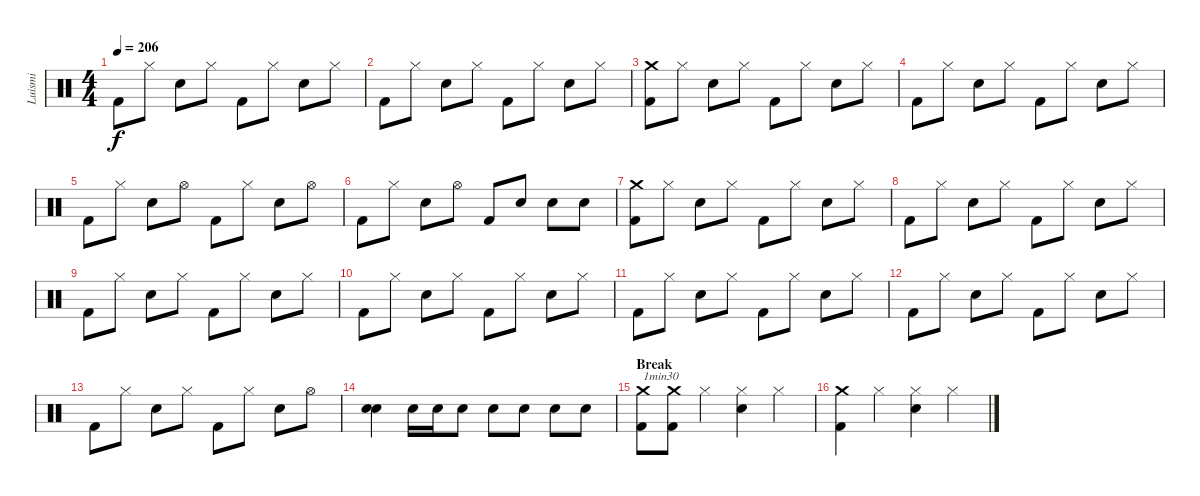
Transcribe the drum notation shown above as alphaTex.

\track ("Luismi" "Luismi") {instrument percussion}
\staff {score}
\articulation defaults
\ts (4 4)
\tempo 206
\clef neutral
\ks c "Kick (hit) 2".8{dy f} "Hi-Hat (closed)".8 "Snare (hit) 2".8 "Hi-Hat (closed)".8 "Kick (hit) 2".8 "Hi-Hat (closed)".8 "Snare (hit) 2".8 "Hi-Hat (closed)".8
|
"Kick (hit) 2".8 "Hi-Hat (closed)".8 "Snare (hit) 2".8 "Hi-Hat (closed)".8 "Kick (hit) 2".8 "Hi-Hat (closed)".8 "Snare (hit) 2".8 "Hi-Hat (closed)".8 |
("Crash medium (hit)" "Kick (hit) 2").8 "Hi-Hat (closed)".8 "Snare (hit) 2".8 "Hi-Hat (closed)".8 "Kick (hit) 2".8 "Hi-Hat (closed)".8 "Snare (hit) 2".8 "Hi-Hat (closed)".8 |
"Kick (hit) 2".8 "Hi-Hat (closed)".8 "Snare (hit) 2".8 "Hi-Hat (closed)".8 "Kick (hit) 2".8 "Hi-Hat (closed)".8 "Snare (hit) 2".8 "Hi-Hat (closed)".8 |
"Kick (hit) 2".8 "Hi-Hat (closed)".8 "Snare (hit) 2".8 "Hi-Hat (open)".8 "Kick (hit) 2".8 "Hi-Hat (closed)".8 "Snare (hit) 2".8 "Hi-Hat (open)".8 |
"Kick (hit) 2".8 "Hi-Hat (closed)".8 "Snare (hit) 2".8 "Hi-Hat (open)".8 "Kick (hit) 2".8 "Snare (hit) 2".8 "Snare (hit) 2".8 "Snare (hit) 2".8 |
("Crash medium (hit)" "Kick (hit) 2").8 "Hi-Hat (closed)".8 "Snare (hit) 2".8 "Hi-Hat (closed)".8 "Kick (hit) 2".8 "Hi-Hat (closed)".8 "Snare (hit) 2".8 "Hi-Hat (closed)".8 |
"Kick (hit) 2".8 "Hi-Hat (closed)".8 "Snare (hit) 2".8 "Hi-Hat (closed)".8 "Kick (hit) 2".8 "Hi-Hat (closed)".8 "Snare (hit) 2".8 "Hi-Hat (closed)".8 |
"Kick (hit) 2".8 "Hi-Hat (closed)".8 "Snare (hit) 2".8 "Hi-Hat (closed)".8 "Kick (hit) 2".8 "Hi-Hat (closed)".8 "Snare (hit) 2".8 "Hi-Hat (closed)".8 |
"Kick (hit) 2".8 "Hi-Hat (closed)".8 "Snare (hit) 2".8 "Hi-Hat (closed)".8 "Kick (hit) 2".8 "Hi-Hat (closed)".8 "Snare (hit) 2".8 "Hi-Hat (closed)".8 |
"Kick (hit) 2".8 "Hi-Hat (closed)".8 "Snare (hit) 2".8 "Hi-Hat (closed)".8 "Kick (hit) 2".8 "Hi-Hat (closed)".8 "Snare (hit) 2".8 "Hi-Hat (closed)".8 |
"Kick (hit) 2".8 "Hi-Hat (closed)".8 "Snare (hit) 2".8 "Hi-Hat (closed)".8 "Kick (hit) 2".8 "Hi-Hat (closed)".8 "Snare (hit) 2".8 "Hi-Hat (closed)".8 |
"Kick (hit) 2".8 "Hi-Hat (closed)".8 "Snare (hit) 2".8 "Hi-Hat (closed)".8 "Kick (hit) 2".8 "Hi-Hat (closed)".8 "Snare (hit) 2".8 "Hi-Hat (open)".8 |
("Snare (hit) 2" "Snare (hit) 2").4 "Snare (hit) 2".16 "Snare (hit) 2".16 "Snare (hit) 2".8 "Snare (hit) 2".8 "Snare (hit) 2".8 "Snare (hit) 2".8 "Snare (hit) 2".8 |
\section ("" "Break")
("Crash medium (hit)" "Kick (hit) 2").8{txt "1min30"} ("Crash medium (hit)" "Kick (hit) 2").8 "Hi-Hat (closed)".4 ("Hi-Hat (closed)" "Snare (hit) 2").4 "Hi-Hat (closed)".4 |
("Crash medium (hit)" "Kick (hit) 2").4 "Hi-Hat (closed)".4 ("Hi-Hat (closed)" "Snare (hit) 2").4 "Hi-Hat (closed)".4
